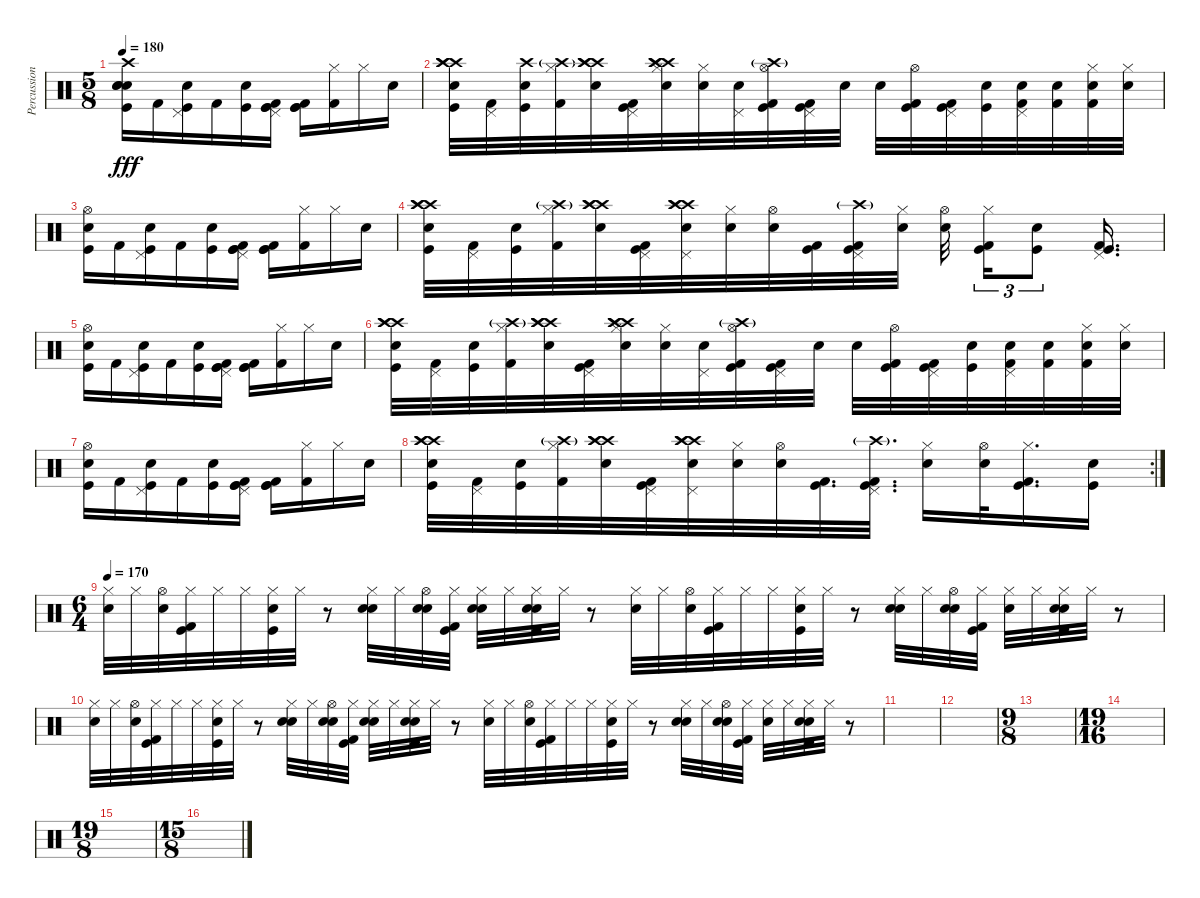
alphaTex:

\track ("Percussion" "Percussion") {instrument percussion}
\staff {score}
\articulation defaults
\ts (5 8)
\tempo 180
\clef neutral
\ks c
("Crash high (hit)" "Electric Snare (hit)" "Electric Snare (hit)" "Snare (hit) 2" "Kick (hit)").16{dy fff} "Kick (hit) 2".16 ("Pedal Hi-Hat (hit)" "Snare (hit) 2" "Kick (hit)").16 "Kick (hit) 2".16 ("Snare (hit) 2" "Kick (hit)").16 ("Pedal Hi-Hat (hit)" "Kick (hit)" "Kick (hit) 2" "Kick (hit)").16 ("Kick (hit)" "Kick (hit) 2" "Kick (hit)").16 ("Hi-Hat (closed)" "Kick (hit) 2").16 "Hi-Hat (closed)".16 "Snare (hit) 2".16 |
("Crash high (hit)" "Crash high (hit)" "Snare (hit) 2" "Crash high (hit)" "Kick (hit)").32 ("Pedal Hi-Hat (hit)" "Kick (hit) 2").32 ("Snare (hit) 2" "Crash high (hit)" "Kick (hit)").32 ("Hi-Hat (closed)" "Crash high (hit)"{g} "Kick (hit) 2").32 ("Crash high (hit)" "Crash high (hit)" "Snare (hit) 2" "Crash high (hit)").32 ("Pedal Hi-Hat (hit)" "Kick (hit) 2" "Kick (hit)").32 ("Hi-Hat (closed)" "Crash high (hit)" "Crash high (hit)" "Snare (hit) 2" "Crash high (hit)").32 ("Hi-Hat (closed)" "Snare (hit) 2").32 ("Pedal Hi-Hat (hit)" "Snare (hit) 2").32 ("Hi-Hat (open)" "Crash high (hit)"{g} "Kick (hit) 2" "Kick (hit)").32 ("Pedal Hi-Hat (hit)" "Kick (hit)" "Kick (hit) 2").32 "Snare (hit) 2".32 "Snare (hit) 2".32 ("Hi-Hat (open)" "Kick (hit)" "Kick (hit) 2").32 ("Pedal Hi-Hat (hit)" "Kick (hit)" "Kick (hit) 2").32 ("Snare (hit) 2" "Kick (hit)").32 ("Pedal Hi-Hat (hit)" "Snare (hit) 2" "Kick (hit) 2").32 ("Snare (hit) 2" "Kick (hit) 2").32 ("Hi-Hat (closed)" "Snare (hit) 2" "Kick (hit) 2").32 ("Hi-Hat (closed)" "Snare (hit) 2").32 |
("Hi-Hat (open)" "Snare (hit) 2" "Kick (hit)").16 "Kick (hit) 2".16 ("Pedal Hi-Hat (hit)" "Snare (hit) 2" "Kick (hit)").16 "Kick (hit) 2".16 ("Snare (hit) 2" "Kick (hit)").16 ("Pedal Hi-Hat (hit)" "Kick (hit)" "Kick (hit) 2" "Kick (hit)").16 ("Kick (hit)" "Kick (hit) 2" "Kick (hit)").16 ("Hi-Hat (closed)" "Kick (hit) 2").16 "Hi-Hat (closed)".16 "Snare (hit) 2".16 |
("Crash high (hit)" "Crash high (hit)" "Snare (hit) 2" "Crash high (hit)" "Kick (hit)").32 ("Pedal Hi-Hat (hit)" "Kick (hit) 2").32 ("Snare (hit) 2" "Kick (hit)").32 ("Hi-Hat (closed)" "Crash high (hit)"{g} "Kick (hit) 2").32 ("Crash high (hit)" "Crash high (hit)" "Snare (hit) 2" "Crash high (hit)").32 ("Pedal Hi-Hat (hit)" "Kick (hit) 2" "Kick (hit)").32 ("Pedal Hi-Hat (hit)" "Crash high (hit)" "Crash high (hit)" "Snare (hit) 2" "Crash high (hit)").32 ("Hi-Hat (closed)" "Snare (hit) 2").32 ("Hi-Hat (open)" "Snare (hit) 2").32 ("Kick (hit) 2" "Kick (hit)").32 ("Pedal Hi-Hat (hit)" "Crash high (hit)"{g} "Kick (hit)" "Kick (hit) 2").32 ("Hi-Hat (closed)" "Snare (hit) 2").32 ("Hi-Hat (open)" "Snare (hit) 2").32{beam splitsecondary} ("Hi-Hat (closed)" "Kick (hit)" "Kick (hit) 2").16{tu (3 2)} ("Snare (hit) 2" "Kick (hit)").8{tu (3 2)} ("Pedal Hi-Hat (hit)" "Kick (hit)" "Kick (hit) 2").16{d} |
("Hi-Hat (open)" "Snare (hit) 2" "Kick (hit)").16 "Kick (hit) 2".16 ("Pedal Hi-Hat (hit)" "Snare (hit) 2" "Kick (hit)").16 "Kick (hit) 2".16 ("Snare (hit) 2" "Kick (hit)").16 ("Pedal Hi-Hat (hit)" "Kick (hit)" "Kick (hit) 2" "Kick (hit)").16 ("Kick (hit)" "Kick (hit) 2" "Kick (hit)").16 ("Hi-Hat (closed)" "Kick (hit) 2").16 "Hi-Hat (closed)".16 "Snare (hit) 2".16 |
("Crash high (hit)" "Crash high (hit)" "Crash high (hit)" "Snare (hit) 2" "Kick (hit)").32 ("Pedal Hi-Hat (hit)" "Kick (hit) 2").32 ("Snare (hit) 2" "Kick (hit)").32 ("Hi-Hat (closed)" "Crash high (hit)"{g} "Kick (hit) 2").32 ("Crash high (hit)" "Crash high (hit)" "Snare (hit) 2" "Crash high (hit)").32 ("Pedal Hi-Hat (hit)" "Kick (hit) 2" "Kick (hit)").32 ("Hi-Hat (closed)" "Crash high (hit)" "Crash high (hit)" "Snare (hit) 2" "Crash high (hit)").32 ("Hi-Hat (closed)" "Snare (hit) 2").32 ("Pedal Hi-Hat (hit)" "Snare (hit) 2").32 ("Hi-Hat (open)" "Crash high (hit)"{g} "Kick (hit) 2" "Kick (hit)").32 ("Pedal Hi-Hat (hit)" "Kick (hit)" "Kick (hit) 2").32 "Snare (hit) 2".32 "Snare (hit) 2".32 ("Hi-Hat (open)" "Kick (hit)" "Kick (hit) 2").32 ("Pedal Hi-Hat (hit)" "Kick (hit)" "Kick (hit) 2").32 ("Snare (hit) 2" "Kick (hit)").32 ("Pedal Hi-Hat (hit)" "Snare (hit) 2" "Kick (hit) 2").32 ("Snare (hit) 2" "Kick (hit) 2").32 ("Hi-Hat (closed)" "Snare (hit) 2" "Kick (hit) 2").32 ("Hi-Hat (closed)" "Snare (hit) 2").32 |
("Hi-Hat (open)" "Snare (hit) 2" "Kick (hit)").16 "Kick (hit) 2".16 ("Pedal Hi-Hat (hit)" "Snare (hit) 2" "Kick (hit)").16 "Kick (hit) 2".16 ("Snare (hit) 2" "Kick (hit)").16 ("Pedal Hi-Hat (hit)" "Kick (hit)" "Kick (hit) 2" "Kick (hit)").16 ("Kick (hit)" "Kick (hit) 2" "Kick (hit)").16 ("Hi-Hat (closed)" "Kick (hit) 2").16 "Hi-Hat (closed)".16 "Snare (hit) 2".16 |
\rc 2
("Crash high (hit)" "Crash high (hit)" "Crash high (hit)" "Snare (hit) 2" "Kick (hit)").32 ("Pedal Hi-Hat (hit)" "Kick (hit) 2").32 ("Snare (hit) 2" "Kick (hit)").32 ("Hi-Hat (closed)" "Crash high (hit)"{g} "Kick (hit) 2").32 ("Crash high (hit)" "Crash high (hit)" "Crash high (hit)" "Snare (hit) 2").32 ("Pedal Hi-Hat (hit)" "Kick (hit) 2" "Kick (hit)").32 ("Pedal Hi-Hat (hit)" "Crash high (hit)" "Crash high (hit)" "Snare (hit) 2" "Crash high (hit)").32 ("Hi-Hat (closed)" "Snare (hit) 2").32 ("Hi-Hat (open)" "Snare (hit) 2").32 ("Kick (hit) 2" "Kick (hit)").32{d} ("Pedal Hi-Hat (hit)" "Crash high (hit)"{g} "Kick (hit)" "Kick (hit) 2").32{d} ("Hi-Hat (closed)" "Snare (hit) 2").16 ("Hi-Hat (open)" "Snare (hit) 2").32 ("Hi-Hat (closed)" "Kick (hit)" "Kick (hit) 2").16{d} ("Snare (hit) 2" "Kick (hit)").16 |
\ts (6 4)
\tempo 170
("Hi-Hat (closed)" "Snare (hit) 2").32{volume 0} "Hi-Hat (closed)".32 ("Hi-Hat (open)" "Snare (hit) 2").32 ("Hi-Hat (closed)" "Kick (hit)" "Kick (hit) 2").32 "Hi-Hat (closed)".32 "Hi-Hat (closed)".32 ("Hi-Hat (closed)" "Snare (hit) 2" "Kick (hit)").32 "Hi-Hat (closed)".32 r.8 ("Hi-Hat (closed)" "Snare (hit) 2" "Electric Snare (hit)").32 "Hi-Hat (closed)".32 ("Hi-Hat (open)" "Snare (hit) 2" "Electric Snare (hit)").32 ("Hi-Hat (closed)" "Kick (hit)" "Kick (hit) 2").32 ("Hi-Hat (closed)" "Snare (hit) 2" "Electric Snare (hit)").32 "Hi-Hat (closed)".32 ("Hi-Hat (closed)" "Snare (hit) 2" "Electric Snare (hit)" "Kick (hit)").32 "Hi-Hat (closed)".32 r.8 ("Hi-Hat (closed)" "Snare (hit) 2").32 "Hi-Hat (closed)".32 ("Hi-Hat (open)" "Snare (hit) 2").32 ("Hi-Hat (closed)" "Kick (hit)" "Kick (hit) 2").32 "Hi-Hat (closed)".32 "Hi-Hat (closed)".32 ("Hi-Hat (closed)" "Snare (hit) 2" "Kick (hit)").32 "Hi-Hat (closed)".32 r.8 ("Hi-Hat (closed)" "Electric Snare (hit)" "Snare (hit) 2").32 "Hi-Hat (closed)".32 ("Hi-Hat (open)" "Electric Snare (hit)" "Snare (hit) 2").32 ("Hi-Hat (closed)" "Kick (hit)" "Kick (hit) 2").32 ("Hi-Hat (closed)" "Electric Snare (hit)").32 "Hi-Hat (closed)".32 ("Hi-Hat (closed)" "Electric Snare (hit)" "Snare (hit) 2" "Kick (hit)").32 "Hi-Hat (closed)".32 r.8 |
("Hi-Hat (closed)" "Snare (hit) 2").32 "Hi-Hat (closed)".32 ("Hi-Hat (open)" "Snare (hit) 2").32 ("Hi-Hat (closed)" "Kick (hit)" "Kick (hit) 2").32 "Hi-Hat (closed)".32 "Hi-Hat (closed)".32 ("Hi-Hat (closed)" "Snare (hit) 2" "Kick (hit)").32 "Hi-Hat (closed)".32 r.8 ("Hi-Hat (closed)" "Snare (hit) 2" "Electric Snare (hit)").32 "Hi-Hat (closed)".32 ("Hi-Hat (open)" "Snare (hit) 2" "Electric Snare (hit)").32 ("Hi-Hat (closed)" "Kick (hit)" "Kick (hit) 2").32 ("Hi-Hat (closed)" "Snare (hit) 2" "Electric Snare (hit)").32 "Hi-Hat (closed)".32 ("Hi-Hat (closed)" "Snare (hit) 2" "Electric Snare (hit)" "Kick (hit)").32 "Hi-Hat (closed)".32 r.8 ("Hi-Hat (closed)" "Snare (hit) 2").32 "Hi-Hat (closed)".32 ("Hi-Hat (open)" "Snare (hit) 2").32 ("Hi-Hat (closed)" "Kick (hit)" "Kick (hit) 2").32 "Hi-Hat (closed)".32 "Hi-Hat (closed)".32 ("Hi-Hat (closed)" "Snare (hit) 2" "Kick (hit)").32 "Hi-Hat (closed)".32 r.8 ("Hi-Hat (closed)" "Electric Snare (hit)" "Snare (hit) 2").32 "Hi-Hat (closed)".32 ("Hi-Hat (open)" "Electric Snare (hit)" "Snare (hit) 2").32 ("Hi-Hat (closed)" "Kick (hit)" "Kick (hit) 2").32 ("Hi-Hat (closed)" "Electric Snare (hit)").32 "Hi-Hat (closed)".32 ("Hi-Hat (closed)" "Electric Snare (hit)" "Snare (hit) 2" "Kick (hit)").32 "Hi-Hat (closed)".32 r.8 |
|
|
\ts (9 8)
|
\ts (19 16)
|
\ts (19 8)
|
\ts (15 8)
